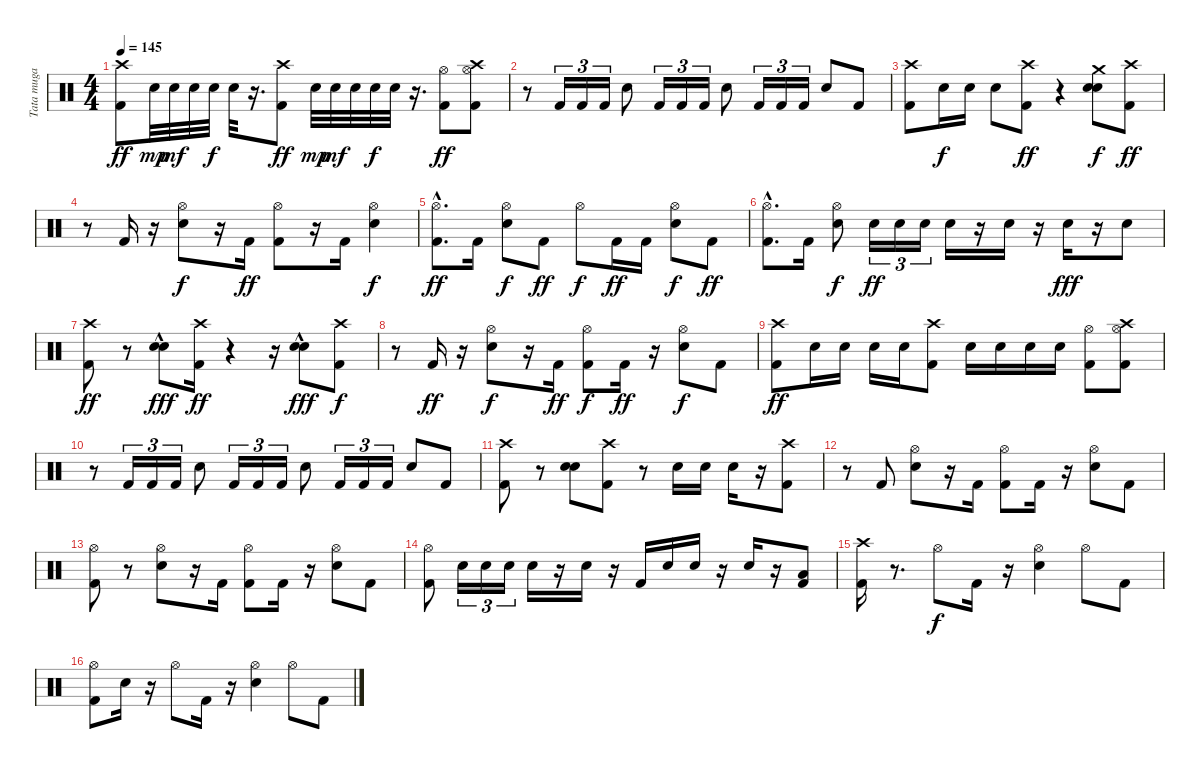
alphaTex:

\track ("Tata muga" "Tata muga") {instrument percussion}
\staff {score}
\articulation defaults
\ts (4 4)
\tempo 145
\clef neutral
\ks c
("Crash high (hit)" "Kick (hit) 2").8{dy ff} "Electric Snare (hit)".32{dy mp} "Electric Snare (hit)".32{dy mf} "Electric Snare (hit)".32 "Electric Snare (hit)".32{dy f} "Electric Snare (hit)".32 r.16{d} ("Crash high (hit)" "Kick (hit) 2").8{dy ff} "Electric Snare (hit)".32{dy mp} "Electric Snare (hit)".32{dy mf} "Electric Snare (hit)".32 "Electric Snare (hit)".32{dy f} "Electric Snare (hit)".32 r.16{d} ("Hi-Hat (open)" "Kick (hit) 2").8{dy ff} ("Hi-Hat (open)" "Crash high (hit)" "Kick (hit) 2").8 |
r.8 "Kick (hit) 2".16{tu (3 2)} "Kick (hit) 2".16{tu (3 2)} "Kick (hit) 2".16{tu (3 2)} "Electric Snare (hit)".8 "Kick (hit) 2".16{tu (3 2)} "Kick (hit) 2".16{tu (3 2)} "Kick (hit) 2".16{tu (3 2)} "Electric Snare (hit)".8 "Kick (hit) 2".16{tu (3 2)} "Kick (hit) 2".16{tu (3 2)} "Kick (hit) 2".16{tu (3 2)} "Electric Snare (hit)".8 "Kick (hit) 2".8 |
("Crash high (hit)" "Kick (hit) 2").8 "Electric Snare (hit)".16{dy f} "Electric Snare (hit)".16 "Electric Snare (hit)".8 ("Crash high (hit)" "Kick (hit) 2").8{dy ff} r.4 ("Crash medium (hit)" "Electric Snare (hit)" "Electric Snare (hit)").8{dy f} ("Crash high (hit)" "Kick (hit) 2").8{dy ff} |
r.8 "Kick (hit) 2".16 r.16 ("Hi-Hat (open)" "Electric Snare (hit)").8{dy f} r.16 "Kick (hit) 2".16{dy ff} ("Hi-Hat (open)" "Kick (hit) 2").8 r.16 "Kick (hit) 2".16 ("Hi-Hat (open)" "Electric Snare (hit)").4{dy f} |
("Hi-Hat (open)"{hac} "Kick (hit) 2"{hac}).8{d dy ff} "Kick (hit) 2".16 ("Hi-Hat (open)" "Electric Snare (hit)").8{dy f} "Kick (hit) 2".8{dy ff} "Hi-Hat (open)".8{dy f} "Kick (hit) 2".16{dy ff} "Kick (hit) 2".16 ("Hi-Hat (open)" "Electric Snare (hit)").8{dy f} "Kick (hit) 2".8{dy ff} |
("Hi-Hat (open)"{hac} "Kick (hit) 2"{hac}).8{d} "Kick (hit) 2".16 ("Hi-Hat (open)" "Electric Snare (hit)").8{dy f} "Electric Snare (hit)".16{tu (3 2) dy ff} "Electric Snare (hit)".16{tu (3 2)} "Electric Snare (hit)".16{tu (3 2)} "Electric Snare (hit)".16 r.16 "Electric Snare (hit)".16 r.16 "Electric Snare (hit)".16{dy fff} r.16 "Electric Snare (hit)".8 |
("Crash high (hit)" "Kick (hit) 2").8{dy ff} r.8 ("Electric Snare (hit)" "Electric Snare (hit)"{hac}).8{dy fff} ("Crash high (hit)" "Kick (hit) 2").16{dy ff} r.4 r.16 ("Electric Snare (hit)" "Electric Snare (hit)"{hac}).8{dy fff} ("Kick (hit) 2" "Crash high (hit)").8{dy f} |
r.8 "Kick (hit) 2".16{dy ff} r.16 ("Hi-Hat (open)" "Electric Snare (hit)").8{dy f} r.16 "Kick (hit) 2".16{dy ff} ("Kick (hit) 2" "Hi-Hat (open)").8{dy f} "Kick (hit) 2".16{dy ff} r.16 ("Hi-Hat (open)" "Electric Snare (hit)").8{dy f} "Kick (hit) 2".8 |
("Crash high (hit)" "Kick (hit) 2").8{dy ff} "Electric Snare (hit)".16 "Electric Snare (hit)".16 "Electric Snare (hit)".16 "Electric Snare (hit)".16 ("Crash high (hit)" "Kick (hit) 2").8 "Electric Snare (hit)".16 "Electric Snare (hit)".16 "Electric Snare (hit)".16 "Electric Snare (hit)".16 ("Hi-Hat (open)" "Kick (hit) 2").8 ("Hi-Hat (open)" "Crash high (hit)" "Kick (hit) 2").8 |
r.8 "Kick (hit) 2".16{tu (3 2)} "Kick (hit) 2".16{tu (3 2)} "Kick (hit) 2".16{tu (3 2)} "Electric Snare (hit)".8 "Kick (hit) 2".16{tu (3 2)} "Kick (hit) 2".16{tu (3 2)} "Kick (hit) 2".16{tu (3 2)} "Electric Snare (hit)".8 "Kick (hit) 2".16{tu (3 2)} "Kick (hit) 2".16{tu (3 2)} "Kick (hit) 2".16{tu (3 2)} "Electric Snare (hit)".8 "Kick (hit) 2".8 |
("Crash high (hit)" "Kick (hit) 2").8 r.8 ("Electric Snare (hit)" "Electric Snare (hit)").8 ("Crash high (hit)" "Kick (hit) 2").8 r.8 "Electric Snare (hit)".16 "Electric Snare (hit)".16 "Electric Snare (hit)".16 r.16 ("Kick (hit) 2" "Crash high (hit)").8 |
r.8 "Kick (hit) 2".8 ("Hi-Hat (open)" "Electric Snare (hit)").8 r.16 "Kick (hit) 2".16 ("Hi-Hat (open)" "Kick (hit) 2").8 "Kick (hit) 2".16 r.16 ("Hi-Hat (open)" "Electric Snare (hit)").8 "Kick (hit) 2".8 |
("Hi-Hat (open)" "Kick (hit) 2").8 r.8 ("Hi-Hat (open)" "Electric Snare (hit)").8 r.16 "Kick (hit) 2".16 ("Hi-Hat (open)" "Kick (hit) 2").8 "Kick (hit) 2".16 r.16 ("Hi-Hat (open)" "Electric Snare (hit)").8 "Kick (hit) 2".8 |
("Kick (hit) 2" "Hi-Hat (open)").8 "Electric Snare (hit)".16{tu (3 2)} "Electric Snare (hit)".16{tu (3 2)} "Electric Snare (hit)".16{tu (3 2)} "Electric Snare (hit)".16 r.16 "Electric Snare (hit)".16 r.16 "Kick (hit) 2".16 "Electric Snare (hit)".16 "Electric Snare (hit)".16 r.16 "Electric Snare (hit)".16 r.16 ("Kick (hit) 2" "Low Tom (hit)").8 |
("Crash high (hit)" "Kick (hit) 2").16 r.8{d} "Hi-Hat (open)".8{dy f} "Kick (hit) 2".16 r.16 ("Hi-Hat (open)" "Electric Snare (hit)").4 "Hi-Hat (open)".8 "Kick (hit) 2".8 |
("Hi-Hat (open)" "Kick (hit) 2").8 "Electric Snare (hit)".16 r.16 "Hi-Hat (open)".8 "Kick (hit) 2".16 r.16 ("Hi-Hat (open)" "Electric Snare (hit)").4 "Hi-Hat (open)".8 "Kick (hit) 2".8
